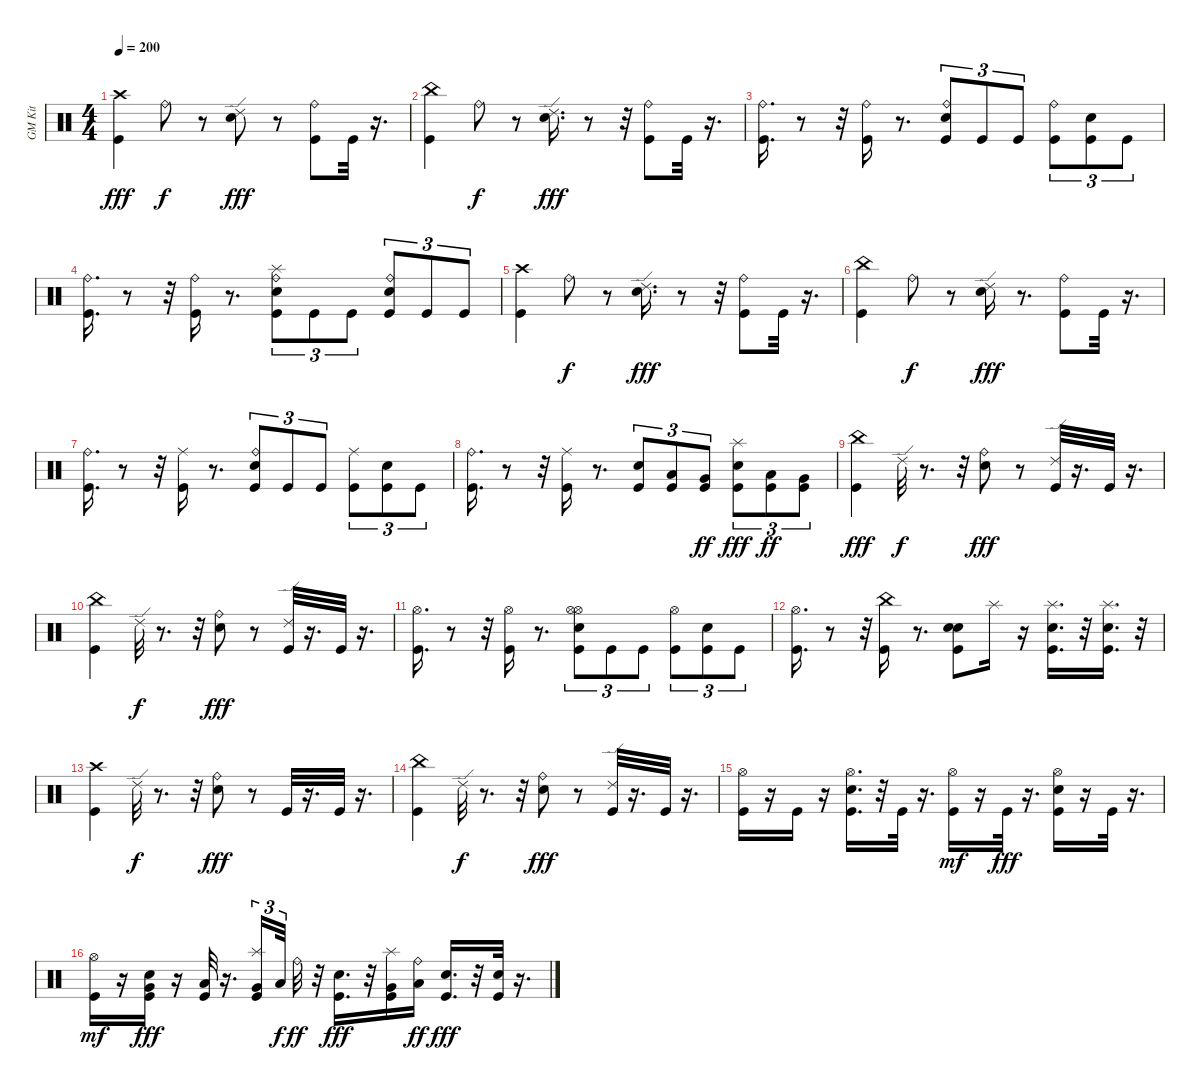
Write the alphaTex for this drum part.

\track ("GM Kit" "GM Kit") {instrument percussion}
\staff {score}
\articulation defaults
\ts (4 4)
\tempo 200
\clef neutral
\ks c
("Kick (hit)" "Crash high (hit)").4{dy fff} "Ride (bell)".8{dy f} r.8 ("Snare (hit) 2" "Ride (edge) 2").8{dy fff} r.8 ("Kick (hit)" "Ride (bell)").8 "Kick (hit)".32 r.16{d} |
("Kick (hit)" "China (hit)").4 "Ride (bell)".8{dy f} r.8 ("Snare (hit) 2" "Ride (edge) 2").16{d dy fff} r.8 r.32 ("Kick (hit)" "Ride (bell)").8 "Kick (hit)".32 r.16{d} |
("Kick (hit)" "Ride (bell)").16{d} r.8 r.32 ("Kick (hit)" "Ride (bell)").16 r.8{d} ("Kick (hit)" "Snare (hit) 2" "Ride (bell)").8{tu (3 2)} "Kick (hit)".8{tu (3 2)} "Kick (hit)".8{tu (3 2)} ("Kick (hit)" "Ride (bell)").8{tu (3 2)} ("Kick (hit)" "Snare (hit) 2").8{tu (3 2)} "Kick (hit)".8{tu (3 2)} |
("Kick (hit)" "Ride (bell)").16{d} r.8 r.32 ("Kick (hit)" "Ride (bell)").16 r.8{d} ("Kick (hit)" "Snare (hit) 2" "Ride (bell)" "Splash (hit)").8{tu (3 2)} "Kick (hit)".8{tu (3 2)} "Kick (hit)".8{tu (3 2)} ("Kick (hit)" "Snare (hit) 2" "Ride (bell)").8{tu (3 2)} "Kick (hit)".8{tu (3 2)} "Kick (hit)".8{tu (3 2)} |
("Kick (hit)" "Crash high (hit)").4 "Ride (bell)".8{dy f} r.8 ("Snare (hit) 2" "Ride (edge) 2").16{d dy fff} r.8 r.32 ("Kick (hit)" "Ride (bell)").8 "Kick (hit)".32 r.16{d} |
("Kick (hit)" "China (hit)").4 "Ride (bell)".8{dy f} r.8 ("Snare (hit) 2" "Ride (edge) 2").16{dy fff} r.8{d} ("Kick (hit)" "Ride (bell)").8 "Kick (hit)".32 r.16{d} |
("Kick (hit)" "Ride (bell)").16{d} r.8 r.32 ("Kick (hit)" "Ride (middle)").16 r.8{d} ("Kick (hit)" "Snare (hit) 2" "Ride (bell)").8{tu (3 2)} "Kick (hit)".8{tu (3 2)} "Kick (hit)".8{tu (3 2)} ("Kick (hit)" "Ride (middle)").8{tu (3 2)} ("Kick (hit)" "Snare (hit) 2").8{tu (3 2)} "Kick (hit)".8{tu (3 2)} |
("Kick (hit)" "Ride (bell)").16{d} r.8 r.32 ("Kick (hit)" "Ride (middle)").16 r.8{d} ("Kick (hit)" "Snare (hit) 2").8{tu (3 2)} ("Kick (hit)" "Low Tom (hit)").8{tu (3 2)} ("Kick (hit)" "Very Low Tom (hit)").8{tu (3 2) dy ff} ("Kick (hit)" "Snare (hit) 2" "Splash (hit)").8{tu (3 2) dy fff} ("Kick (hit)" "Low Tom (hit)").8{tu (3 2) dy ff} ("Kick (hit)" "Very Low Tom (hit)").8{tu (3 2)} |
("Kick (hit)" "China (hit)").4{dy fff} "Ride (edge) 2".32{dy f} r.8{d} r.32 ("Snare (hit) 2" "Ride (bell)").8{dy fff} r.8 ("Kick (hit)" "Ride (edge) 2").32 r.16{d} "Kick (hit)".32 r.16{d} |
("Kick (hit)" "China (hit)").4 "Ride (edge) 2".32{dy f} r.8{d} r.32 ("Snare (hit) 2" "Ride (bell)").8{dy fff} r.8 ("Kick (hit)" "Ride (edge) 2").32 r.16{d} "Kick (hit)".32 r.16{d} |
("Kick (hit)" "Hi-Hat (open)").16{d} r.8 r.32 ("Kick (hit)" "Hi-Hat (open)").16 r.8{d} ("Kick (hit)" "Snare (hit) 2" "Hi-Hat (open)" "Hi-Hat (open)").8{tu (3 2)} "Kick (hit)".8{tu (3 2)} "Kick (hit)".8{tu (3 2)} ("Kick (hit)" "Hi-Hat (open)").8{tu (3 2)} ("Kick (hit)" "Snare (hit) 2").8{tu (3 2)} "Kick (hit)".8{tu (3 2)} |
("Kick (hit)" "Hi-Hat (open)").16{d} r.8 r.32 ("Kick (hit)" "China (hit)").16 r.8{d} ("Kick (hit)" "Snare (hit) 2" "Snare (hit) 2").8 "Splash (hit)".16 r.16 ("Kick (hit)" "Snare (hit) 2" "Splash (hit)").16{d} r.32 ("Kick (hit)" "Snare (hit) 2" "Splash (hit)").16{d} r.32 |
("Kick (hit)" "Crash high (hit)").4 "Ride (edge) 2".32{dy f} r.8{d} r.32 ("Snare (hit) 2" "Ride (bell)").8{dy fff} r.8 "Kick (hit)".32 r.16{d} "Kick (hit)".32 r.16{d} |
("Kick (hit)" "China (hit)").4 "Ride (edge) 2".32{dy f} r.8{d} r.32 ("Snare (hit) 2" "Ride (bell)").8{dy fff} r.8 ("Kick (hit)" "Ride (edge) 2").32 r.16{d} "Kick (hit)".32 r.16{d} |
("Kick (hit)" "Hi-Hat (open)").16 r.16 "Kick (hit)".16 r.16 ("Kick (hit)" "Snare (hit) 2" "Hi-Hat (open)").16{d} r.32 "Kick (hit)".32 r.16{d} ("Kick (hit)" "Hi-Hat (open)").16{dy mf} r.16 "Kick (hit)".32{dy fff} r.16{d} ("Kick (hit)" "Snare (hit) 2" "Hi-Hat (open)").16 r.16 "Kick (hit)".32 r.16{d} |
("Kick (hit)" "Hi-Hat (open)").16{dy mf} r.16 ("Kick (hit)" "Snare (hit) 2" "Very Low Tom (hit)").16{dy fff} r.16 ("Kick (hit)" "Low Floor Tom (hit)").32 r.16{d} ("Kick (hit)" "Very Low Tom (hit)" "Splash (hit)").16{tu (3 2)} "Low Floor Tom (hit)".32{tu (3 2) dy f} "Ride (bell)".32{dy ff} r.32 ("Kick (hit)" "Snare (hit) 2").16{d dy fff} r.32 ("Kick (hit)" "Very Low Tom (hit)" "Splash (hit)").16 ("Low Floor Tom (hit)" "Ride (bell)").16{dy ff} ("Kick (hit)" "Snare (hit) 2").16{d dy fff} r.32 ("Kick (hit)" "Snare (hit) 2").32 r.16{d}
